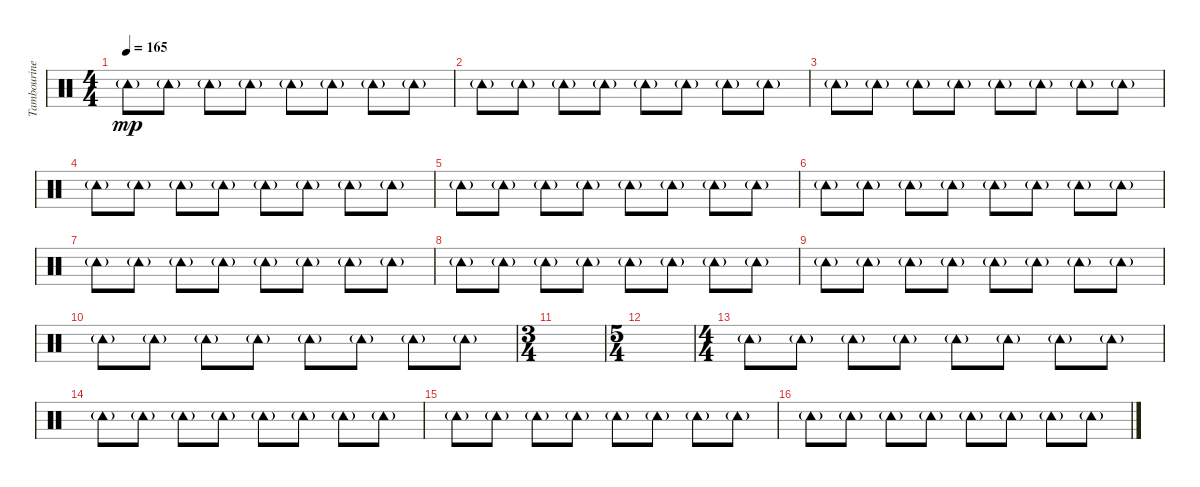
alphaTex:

\track ("Tambourine" "Tambourine") {instrument percussion}
\staff {score}
\articulation defaults
\ts (4 4)
\tempo 165
\clef neutral
\ks c "Tambourine (hit)"{g}.8{dy mp} "Tambourine (hit)"{g}.8 "Tambourine (hit)"{g}.8 "Tambourine (hit)"{g}.8 "Tambourine (hit)"{g}.8 "Tambourine (hit)"{g}.8 "Tambourine (hit)"{g}.8 "Tambourine (hit)"{g}.8
|
"Tambourine (hit)"{g}.8 "Tambourine (hit)"{g}.8 "Tambourine (hit)"{g}.8 "Tambourine (hit)"{g}.8 "Tambourine (hit)"{g}.8 "Tambourine (hit)"{g}.8 "Tambourine (hit)"{g}.8 "Tambourine (hit)"{g}.8 |
"Tambourine (hit)"{g}.8 "Tambourine (hit)"{g}.8 "Tambourine (hit)"{g}.8 "Tambourine (hit)"{g}.8 "Tambourine (hit)"{g}.8 "Tambourine (hit)"{g}.8 "Tambourine (hit)"{g}.8 "Tambourine (hit)"{g}.8 |
"Tambourine (hit)"{g}.8 "Tambourine (hit)"{g}.8 "Tambourine (hit)"{g}.8 "Tambourine (hit)"{g}.8 "Tambourine (hit)"{g}.8 "Tambourine (hit)"{g}.8 "Tambourine (hit)"{g}.8 "Tambourine (hit)"{g}.8 |
"Tambourine (hit)"{g}.8 "Tambourine (hit)"{g}.8 "Tambourine (hit)"{g}.8 "Tambourine (hit)"{g}.8 "Tambourine (hit)"{g}.8 "Tambourine (hit)"{g}.8 "Tambourine (hit)"{g}.8 "Tambourine (hit)"{g}.8 |
"Tambourine (hit)"{g}.8 "Tambourine (hit)"{g}.8 "Tambourine (hit)"{g}.8 "Tambourine (hit)"{g}.8 "Tambourine (hit)"{g}.8 "Tambourine (hit)"{g}.8 "Tambourine (hit)"{g}.8 "Tambourine (hit)"{g}.8 |
"Tambourine (hit)"{g}.8 "Tambourine (hit)"{g}.8 "Tambourine (hit)"{g}.8 "Tambourine (hit)"{g}.8 "Tambourine (hit)"{g}.8 "Tambourine (hit)"{g}.8 "Tambourine (hit)"{g}.8 "Tambourine (hit)"{g}.8 |
"Tambourine (hit)"{g}.8 "Tambourine (hit)"{g}.8 "Tambourine (hit)"{g}.8 "Tambourine (hit)"{g}.8 "Tambourine (hit)"{g}.8 "Tambourine (hit)"{g}.8 "Tambourine (hit)"{g}.8 "Tambourine (hit)"{g}.8 |
"Tambourine (hit)"{g}.8 "Tambourine (hit)"{g}.8 "Tambourine (hit)"{g}.8 "Tambourine (hit)"{g}.8 "Tambourine (hit)"{g}.8 "Tambourine (hit)"{g}.8 "Tambourine (hit)"{g}.8 "Tambourine (hit)"{g}.8 |
"Tambourine (hit)"{g}.8 "Tambourine (hit)"{g}.8 "Tambourine (hit)"{g}.8 "Tambourine (hit)"{g}.8 "Tambourine (hit)"{g}.8 "Tambourine (hit)"{g}.8 "Tambourine (hit)"{g}.8 "Tambourine (hit)"{g}.8 |
\ts (3 4)
|
\ts (5 4)
|
\ts (4 4)
"Tambourine (hit)"{g}.8{volume 9} "Tambourine (hit)"{g}.8 "Tambourine (hit)"{g}.8 "Tambourine (hit)"{g}.8 "Tambourine (hit)"{g}.8 "Tambourine (hit)"{g}.8 "Tambourine (hit)"{g}.8 "Tambourine (hit)"{g}.8 |
"Tambourine (hit)"{g}.8 "Tambourine (hit)"{g}.8 "Tambourine (hit)"{g}.8 "Tambourine (hit)"{g}.8 "Tambourine (hit)"{g}.8 "Tambourine (hit)"{g}.8 "Tambourine (hit)"{g}.8 "Tambourine (hit)"{g}.8 |
"Tambourine (hit)"{g}.8 "Tambourine (hit)"{g}.8 "Tambourine (hit)"{g}.8 "Tambourine (hit)"{g}.8 "Tambourine (hit)"{g}.8 "Tambourine (hit)"{g}.8 "Tambourine (hit)"{g}.8 "Tambourine (hit)"{g}.8 |
"Tambourine (hit)"{g}.8 "Tambourine (hit)"{g}.8 "Tambourine (hit)"{g}.8 "Tambourine (hit)"{g}.8 "Tambourine (hit)"{g}.8 "Tambourine (hit)"{g}.8 "Tambourine (hit)"{g}.8 "Tambourine (hit)"{g}.8
